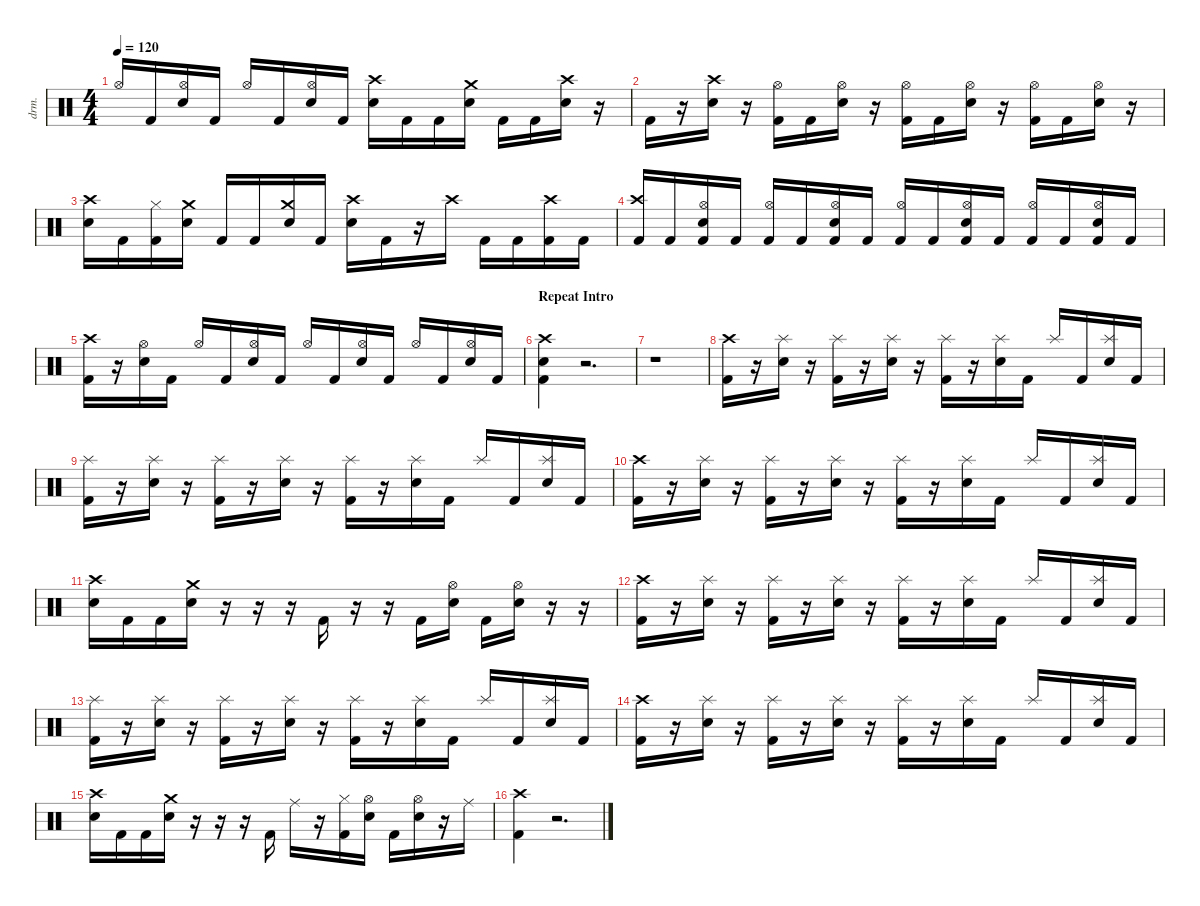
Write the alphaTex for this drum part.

\defaultSystemsLayout 4
\hideDynamics
\bracketExtendMode nobrackets
\track ("Drums" "drm.") {instrument percussion}
\staff {score}
\articulation defaults
\ts (4 4)
\tempo 120
\clef neutral
\ks c "Hi-Hat (open)".16{dy fff beam Up} "Kick (hit) 2".16{dy f beam Up}
("Hi-Hat (open)" "Snare (hit) 2").16{dy fff beam Up} "Kick (hit) 2".16{dy f beam Up} "Hi-Hat (open)".16{dy fff beam Up} "Kick (hit) 2".16{dy f beam Up} ("Hi-Hat (open)" "Snare (hit) 2").16{dy fff beam Up} "Kick (hit) 2".16{dy f beam Up} ("Crash high (hit)" "Snare (hit) 2").16{dy fff beam Down} "Kick (hit) 2".16{dy f beam Down} "Kick (hit) 2".16{beam Down} ("Crash medium (hit)" "Snare (hit) 2").16{dy fff beam Down} "Kick (hit) 2".16{dy f beam Down} "Kick (hit) 2".16{beam Down} ("Crash high (hit)" "Snare (hit) 2").16{dy fff beam Down} r.16{beam Down} |
"Kick (hit) 2".16{dy f beam Down} r.16{beam Down} ("Crash high (hit)" "Snare (hit) 2").16{dy fff beam Down} r.16{beam Down} ("Hi-Hat (open)" "Kick (hit) 2").16{beam Down} "Kick (hit) 2".16{dy f beam Down} ("Hi-Hat (open)" "Snare (hit) 2").16{dy fff beam Down} r.16{beam Down} ("Hi-Hat (open)" "Kick (hit) 2").16{beam Down} "Kick (hit) 2".16{dy f beam Down} ("Hi-Hat (open)" "Snare (hit) 2").16{dy fff beam Down} r.16{beam Down} ("Hi-Hat (open)" "Kick (hit) 2").16{beam Down} "Kick (hit) 2".16{dy f beam Down} ("Hi-Hat (open)" "Snare (hit) 2").16{dy fff beam Down} r.16{beam Down} |
("Crash high (hit)" "Snare (hit) 2").16{beam Down} "Kick (hit) 2".16{dy f beam Down} ("Hi-Hat (closed)" "Kick (hit) 2").16{dy fff beam Down} ("Crash medium (hit)" "Snare (hit) 2").16{beam Down} "Kick (hit) 2".16{dy f beam Up} "Kick (hit) 2".16{beam Up} ("Crash medium (hit)" "Snare (hit) 2").16{dy fff beam Up} "Kick (hit) 2".16{dy f beam Up} ("Crash high (hit)" "Snare (hit) 2").16{dy fff beam Down} "Kick (hit) 2".16{dy f beam Down} r.16{beam Down} "Crash high (hit)".16{beam Down} "Kick (hit) 2".16{beam Down} "Kick (hit) 2".16{beam Down} ("Crash high (hit)" "Kick (hit) 2").16{dy fff beam Down} "Kick (hit) 2".16{dy f beam Down} |
("Crash high (hit)" "Kick (hit) 2").16{dy fff beam Up} "Kick (hit) 2".16{dy f beam Up} ("Hi-Hat (open)" "Snare (hit) 2" "Kick (hit) 2").16{dy fff beam Up} "Kick (hit) 2".16{dy f beam Up} ("Hi-Hat (open)" "Kick (hit) 2").16{dy fff beam Up} "Kick (hit) 2".16{dy f beam Up} ("Hi-Hat (open)" "Snare (hit) 2" "Kick (hit) 2").16{dy fff beam Up} "Kick (hit) 2".16{dy f beam Up} ("Hi-Hat (open)" "Kick (hit) 2").16{dy fff beam Up} "Kick (hit) 2".16{dy f beam Up} ("Hi-Hat (open)" "Snare (hit) 2" "Kick (hit) 2").16{dy fff beam Up} "Kick (hit) 2".16{dy f beam Up} ("Hi-Hat (open)" "Kick (hit) 2").16{dy fff beam Up} "Kick (hit) 2".16{dy f beam Up} ("Hi-Hat (open)" "Snare (hit) 2" "Kick (hit) 2").16{dy fff beam Up} "Kick (hit) 2".16{dy f beam Up} |
("Crash high (hit)" "Kick (hit) 2").16{dy fff beam Down} r.16{beam Down} ("Hi-Hat (open)" "Snare (hit) 2").16{beam Down} "Kick (hit) 2".16{dy f beam Down} "Hi-Hat (open)".16{dy fff beam Up} "Kick (hit) 2".16{dy f beam Up} ("Hi-Hat (open)" "Snare (hit) 2").16{dy fff beam Up} "Kick (hit) 2".16{dy f beam Up} "Hi-Hat (open)".16{dy fff beam Up} "Kick (hit) 2".16{dy f beam Up} ("Hi-Hat (open)" "Snare (hit) 2").16{dy fff beam Up} "Kick (hit) 2".16{dy f beam Up} "Hi-Hat (open)".16{dy fff beam Up} "Kick (hit) 2".16{dy f beam Up} ("Hi-Hat (open)" "Snare (hit) 2").16{dy fff beam Up} "Kick (hit) 2".16{dy f beam Up} |
\section ("" "Repeat Intro")
("Crash high (hit)" "Snare (hit) 2" "Kick (hit) 2").4{dy fff beam Down} r.2{d beam Down} |
r.1{beam Down} |
("Crash high (hit)" "Kick (hit) 2").16{beam Down} r.16{beam Down} ("Splash (hit)" "Snare (hit) 2").16{beam Down} r.16{beam Down} ("Splash (hit)" "Kick (hit) 2").16{beam Down} r.16{beam Down} ("Splash (hit)" "Snare (hit) 2").16{beam Down} r.16{beam Down} ("Splash (hit)" "Kick (hit) 2").16{beam Down} r.16{beam Down} ("Splash (hit)" "Snare (hit) 2").16{beam Down} "Kick (hit) 2".16{dy f beam Down} "Splash (hit)".16{dy fff beam Up} "Kick (hit) 2".16{dy f beam Up} ("Splash (hit)" "Snare (hit) 2").16{dy fff beam Up} "Kick (hit) 2".16{dy f beam Up} |
("Splash (hit)" "Kick (hit) 2").16{dy fff beam Down} r.16{beam Down} ("Splash (hit)" "Snare (hit) 2").16{beam Down} r.16{beam Down} ("Splash (hit)" "Kick (hit) 2").16{beam Down} r.16{beam Down} ("Splash (hit)" "Snare (hit) 2").16{beam Down} r.16{beam Down} ("Splash (hit)" "Kick (hit) 2").16{beam Down} r.16{beam Down} ("Splash (hit)" "Snare (hit) 2").16{beam Down} "Kick (hit) 2".16{dy f beam Down} "Splash (hit)".16{dy fff beam Up} "Kick (hit) 2".16{dy f beam Up} ("Splash (hit)" "Snare (hit) 2").16{dy fff beam Up} "Kick (hit) 2".16{dy f beam Up} |
("Crash high (hit)" "Kick (hit) 2").16{dy fff beam Down} r.16{beam Down} ("Splash (hit)" "Snare (hit) 2").16{beam Down} r.16{beam Down} ("Splash (hit)" "Kick (hit) 2").16{beam Down} r.16{beam Down} ("Splash (hit)" "Snare (hit) 2").16{beam Down} r.16{beam Down} ("Splash (hit)" "Kick (hit) 2").16{beam Down} r.16{beam Down} ("Splash (hit)" "Snare (hit) 2").16{beam Down} "Kick (hit) 2".16{dy f beam Down} "Splash (hit)".16{dy fff beam Up} "Kick (hit) 2".16{dy f beam Up} ("Splash (hit)" "Snare (hit) 2").16{dy fff beam Up} "Kick (hit) 2".16{dy f beam Up} |
("Crash high (hit)" "Snare (hit) 2").16{dy fff beam Down} "Kick (hit) 2".16{dy f beam Down} "Kick (hit) 2".16{beam Down} ("Crash medium (hit)" "Snare (hit) 2").16{dy fff beam Down} r.16{beam Down} r.16{beam Down} r.16{beam Down} "Kick (hit) 2".16{dy f beam Up} r.16{beam Down} r.16{beam Down} "Kick (hit) 2".16{beam Down} ("Hi-Hat (open)" "Snare (hit) 2").16{dy fff beam Down} "Kick (hit) 2".16{dy f beam Down} ("Hi-Hat (open)" "Snare (hit) 2").16{dy fff beam Down} r.16{beam Down} r.16{beam Down} |
("Crash high (hit)" "Kick (hit) 2").16{beam Down} r.16{beam Down} ("Splash (hit)" "Snare (hit) 2").16{beam Down} r.16{beam Down} ("Splash (hit)" "Kick (hit) 2").16{beam Down} r.16{beam Down} ("Splash (hit)" "Snare (hit) 2").16{beam Down} r.16{beam Down} ("Splash (hit)" "Kick (hit) 2").16{beam Down} r.16{beam Down} ("Splash (hit)" "Snare (hit) 2").16{beam Down} "Kick (hit) 2".16{dy f beam Down} "Splash (hit)".16{dy fff beam Up} "Kick (hit) 2".16{dy f beam Up} ("Splash (hit)" "Snare (hit) 2").16{dy fff beam Up} "Kick (hit) 2".16{dy f beam Up} |
("Splash (hit)" "Kick (hit) 2").16{dy fff beam Down} r.16{beam Down} ("Splash (hit)" "Snare (hit) 2").16{beam Down} r.16{beam Down} ("Splash (hit)" "Kick (hit) 2").16{beam Down} r.16{beam Down} ("Splash (hit)" "Snare (hit) 2").16{beam Down} r.16{beam Down} ("Splash (hit)" "Kick (hit) 2").16{beam Down} r.16{beam Down} ("Splash (hit)" "Snare (hit) 2").16{beam Down} "Kick (hit) 2".16{dy f beam Down} "Splash (hit)".16{dy fff beam Up} "Kick (hit) 2".16{dy f beam Up} ("Splash (hit)" "Snare (hit) 2").16{dy fff beam Up} "Kick (hit) 2".16{dy f beam Up} |
("Crash high (hit)" "Kick (hit) 2").16{dy fff beam Down} r.16{beam Down} ("Splash (hit)" "Snare (hit) 2").16{beam Down} r.16{beam Down} ("Splash (hit)" "Kick (hit) 2").16{beam Down} r.16{beam Down} ("Splash (hit)" "Snare (hit) 2").16{beam Down} r.16{beam Down} ("Splash (hit)" "Kick (hit) 2").16{beam Down} r.16{beam Down} ("Splash (hit)" "Snare (hit) 2").16{beam Down} "Kick (hit) 2".16{dy f beam Down} "Splash (hit)".16{dy fff beam Up} "Kick (hit) 2".16{dy f beam Up} ("Splash (hit)" "Snare (hit) 2").16{dy fff beam Up} "Kick (hit) 2".16{dy f beam Up} |
("Crash high (hit)" "Snare (hit) 2").16{dy fff beam Down} "Kick (hit) 2".16{dy f beam Down} "Kick (hit) 2".16{beam Down} ("Crash medium (hit)" "Snare (hit) 2").16{dy fff beam Down} r.16{beam Down} r.16{beam Down} r.16{beam Down} "Kick (hit) 2".16{dy f beam Up} "Ride (middle)".16{dy fff beam Down} r.16{beam Down} ("Hi-Hat (closed)" "Kick (hit) 2").16{beam Down} ("Hi-Hat (open)" "Snare (hit) 2").16{beam Down} "Kick (hit) 2".16{dy f beam Down} ("Hi-Hat (open)" "Snare (hit) 2").16{dy fff beam Down} r.16{beam Down} "Ride (middle)".16{beam Down} |
("Crash high (hit)" "Kick (hit) 2").4{beam Down} r.2{d beam Down}
